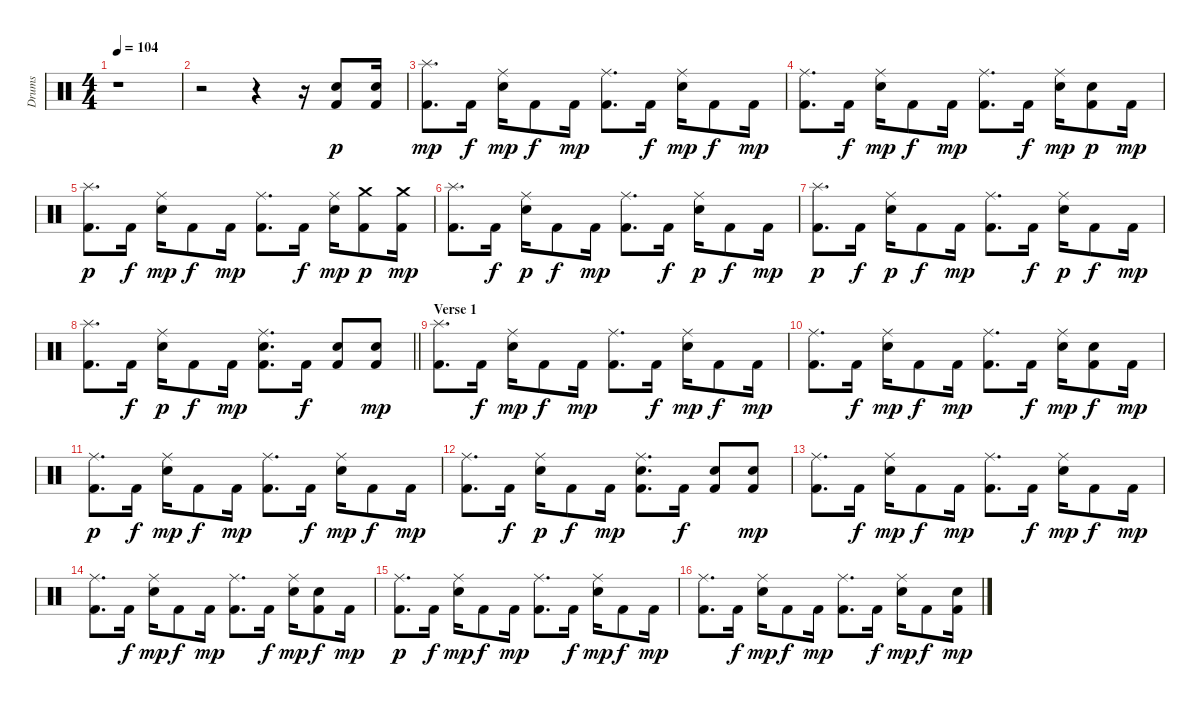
\track ("Drums" "Drums") {instrument percussion}
\staff {score}
\articulation defaults
\ts (4 4)
\tempo 104
\clef neutral
\ks c
r.1{dy p} |
r.2 r.4 r.16 ("Electric Snare (hit)" "Kick (hit) 2").8 ("Electric Snare (hit)" "Kick (hit) 2").16 |
("Splash (hit)" "Kick (hit) 2").8{d dy mp} "Kick (hit) 2".16{dy f} ("Ride (middle)" "Electric Snare (hit)").16{dy mp} "Kick (hit) 2".8{dy f} "Kick (hit) 2".16{dy mp} ("Ride (middle)" "Kick (hit) 2").8{d} "Kick (hit) 2".16{dy f} ("Ride (middle)" "Electric Snare (hit)").16{dy mp} "Kick (hit) 2".8{dy f} "Kick (hit) 2".16{dy mp} |
("Ride (middle)" "Kick (hit) 2").8{d} "Kick (hit) 2".16{dy f} ("Ride (middle)" "Electric Snare (hit)").16{dy mp} "Kick (hit) 2".8{dy f} "Kick (hit) 2".16{dy mp} ("Ride (middle)" "Kick (hit) 2").8{d} "Kick (hit) 2".16{dy f} ("Ride (middle)" "Electric Snare (hit)").16{dy mp} ("Electric Snare (hit)" "Kick (hit) 2").8{dy p} "Kick (hit) 2".16{dy mp} |
("Splash (hit)" "Kick (hit) 2").8{d dy p} "Kick (hit) 2".16{dy f} ("Ride (middle)" "Electric Snare (hit)").16{dy mp} "Kick (hit) 2".8{dy f} "Kick (hit) 2".16{dy mp} ("Ride (middle)" "Kick (hit) 2").8{d} "Kick (hit) 2".16{dy f} ("Ride (middle)" "Electric Snare (hit)").16{dy mp} ("Crash medium (hit)" "Kick (hit) 2").8{dy p} ("Crash medium (hit)" "Kick (hit) 2").16{dy mp} |
("Splash (hit)" "Kick (hit) 2").8{d} "Kick (hit) 2".16{dy f} ("Ride (middle)" "Electric Snare (hit)").16{dy p} "Kick (hit) 2".8{dy f} "Kick (hit) 2".16{dy mp} ("Ride (middle)" "Kick (hit) 2").8{d} "Kick (hit) 2".16{dy f} ("Ride (middle)" "Electric Snare (hit)").16{dy p} "Kick (hit) 2".8{dy f} "Kick (hit) 2".16{dy mp} |
("Splash (hit)" "Kick (hit) 2").8{d dy p} "Kick (hit) 2".16{dy f} ("Ride (middle)" "Electric Snare (hit)").16{dy p} "Kick (hit) 2".8{dy f} "Kick (hit) 2".16{dy mp} ("Ride (middle)" "Kick (hit) 2").8{d} "Kick (hit) 2".16{dy f} ("Ride (middle)" "Electric Snare (hit)").16{dy p} "Kick (hit) 2".8{dy f} "Kick (hit) 2".16{dy mp} |
\barLineRight lightlight
("Splash (hit)" "Kick (hit) 2").8{d} "Kick (hit) 2".16{dy f} ("Ride (middle)" "Electric Snare (hit)").16{dy p} "Kick (hit) 2".8{dy f} "Kick (hit) 2".16{dy mp} ("Ride (middle)" "Electric Snare (hit)" "Kick (hit) 2").8{d} "Kick (hit) 2".16{dy f} ("Electric Snare (hit)" "Kick (hit) 2").8 ("Electric Snare (hit)" "Kick (hit) 2").8{dy mp} |
\section ("" "Verse 1")
("Splash (hit)" "Kick (hit) 2").8{d} "Kick (hit) 2".16{dy f} ("Ride (middle)" "Electric Snare (hit)").16{dy mp} "Kick (hit) 2".8{dy f} "Kick (hit) 2".16{dy mp} ("Ride (middle)" "Kick (hit) 2").8{d} "Kick (hit) 2".16{dy f} ("Ride (middle)" "Electric Snare (hit)").16{dy mp} "Kick (hit) 2".8{dy f} "Kick (hit) 2".16{dy mp} |
("Ride (middle)" "Kick (hit) 2").8{d} "Kick (hit) 2".16{dy f} ("Ride (middle)" "Electric Snare (hit)").16{dy mp} "Kick (hit) 2".8{dy f} "Kick (hit) 2".16{dy mp} ("Ride (middle)" "Kick (hit) 2").8{d} "Kick (hit) 2".16{dy f} ("Ride (middle)" "Electric Snare (hit)").16{dy mp} ("Electric Snare (hit)" "Kick (hit) 2").8{dy f} "Kick (hit) 2".16{dy mp} |
("Ride (middle)" "Kick (hit) 2").8{d dy p} "Kick (hit) 2".16{dy f} ("Ride (middle)" "Electric Snare (hit)").16{dy mp} "Kick (hit) 2".8{dy f} "Kick (hit) 2".16{dy mp} ("Ride (middle)" "Kick (hit) 2").8{d} "Kick (hit) 2".16{dy f} ("Ride (middle)" "Electric Snare (hit)").16{dy mp} "Kick (hit) 2".8{dy f} "Kick (hit) 2".16{dy mp} |
("Ride (middle)" "Kick (hit) 2").8{d} "Kick (hit) 2".16{dy f} ("Ride (middle)" "Electric Snare (hit)").16{dy p} "Kick (hit) 2".8{dy f} "Kick (hit) 2".16{dy mp} ("Ride (middle)" "Electric Snare (hit)" "Kick (hit) 2").8{d} "Kick (hit) 2".16{dy f} ("Electric Snare (hit)" "Kick (hit) 2").8 ("Electric Snare (hit)" "Kick (hit) 2").8{dy mp} |
("Ride (middle)" "Kick (hit) 2").8{d} "Kick (hit) 2".16{dy f} ("Ride (middle)" "Electric Snare (hit)").16{dy mp} "Kick (hit) 2".8{dy f} "Kick (hit) 2".16{dy mp} ("Ride (middle)" "Kick (hit) 2").8{d} "Kick (hit) 2".16{dy f} ("Ride (middle)" "Electric Snare (hit)").16{dy mp} "Kick (hit) 2".8{dy f} "Kick (hit) 2".16{dy mp} |
("Ride (middle)" "Kick (hit) 2").8{d} "Kick (hit) 2".16{dy f} ("Ride (middle)" "Electric Snare (hit)").16{dy mp} "Kick (hit) 2".8{dy f} "Kick (hit) 2".16{dy mp} ("Ride (middle)" "Kick (hit) 2").8{d} "Kick (hit) 2".16{dy f} ("Ride (middle)" "Electric Snare (hit)").16{dy mp} ("Electric Snare (hit)" "Kick (hit) 2").8{dy f} "Kick (hit) 2".16{dy mp} |
("Ride (middle)" "Kick (hit) 2").8{d dy p} "Kick (hit) 2".16{dy f} ("Ride (middle)" "Electric Snare (hit)").16{dy mp} "Kick (hit) 2".8{dy f} "Kick (hit) 2".16{dy mp} ("Ride (middle)" "Kick (hit) 2").8{d} "Kick (hit) 2".16{dy f} ("Ride (middle)" "Electric Snare (hit)").16{dy mp} "Kick (hit) 2".8{dy f} "Kick (hit) 2".16{dy mp} |
("Ride (middle)" "Kick (hit) 2").8{d} "Kick (hit) 2".16{dy f} ("Ride (middle)" "Electric Snare (hit)").16{dy mp} "Kick (hit) 2".8{dy f} "Kick (hit) 2".16{dy mp} ("Ride (middle)" "Kick (hit) 2").8{d} "Kick (hit) 2".16{dy f} ("Ride (middle)" "Electric Snare (hit)").16{dy mp} "Kick (hit) 2".8{dy f} ("Electric Snare (hit)" "Kick (hit) 2").16{dy mp}
